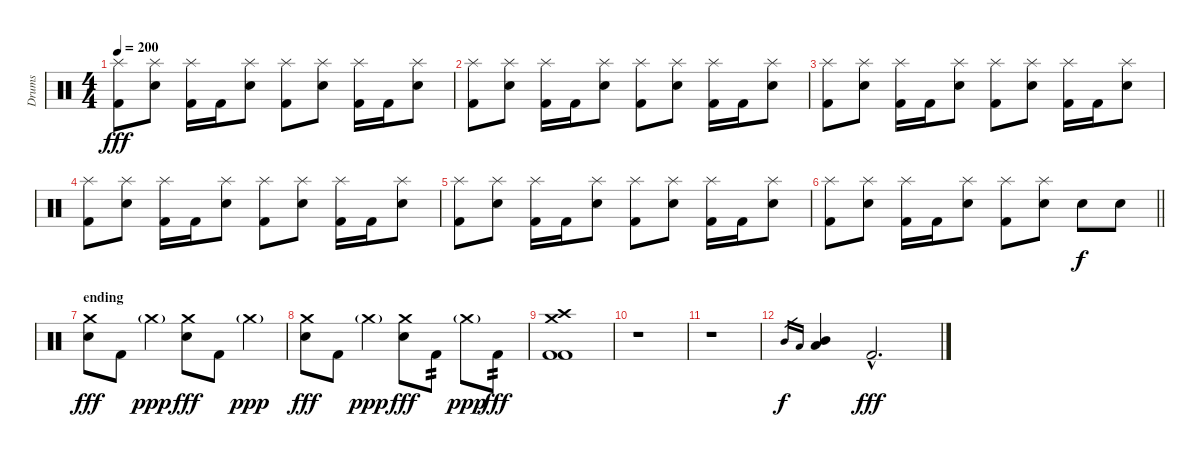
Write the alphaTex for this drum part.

\track ("Drums" "Drums") {instrument percussion}
\staff {score}
\articulation defaults
\ts (4 4)
\tempo 200
\clef neutral
\ks c
("Splash (hit)" "Kick (hit) 2").8{dy fff} ("Splash (hit)" "Electric Snare (hit)").8 ("Splash (hit)" "Kick (hit) 2").16 "Kick (hit) 2".16 ("Splash (hit)" "Electric Snare (hit)").8 ("Splash (hit)" "Kick (hit) 2").8 ("Splash (hit)" "Electric Snare (hit)").8 ("Splash (hit)" "Kick (hit) 2").16 "Kick (hit) 2".16 ("Splash (hit)" "Electric Snare (hit)").8 |
("Splash (hit)" "Kick (hit) 2").8 ("Splash (hit)" "Electric Snare (hit)").8 ("Splash (hit)" "Kick (hit) 2").16 "Kick (hit) 2".16 ("Splash (hit)" "Electric Snare (hit)").8 ("Splash (hit)" "Kick (hit) 2").8 ("Splash (hit)" "Electric Snare (hit)").8 ("Splash (hit)" "Kick (hit) 2").16 "Kick (hit) 2".16 ("Splash (hit)" "Electric Snare (hit)").8 |
("Splash (hit)" "Kick (hit) 2").8 ("Splash (hit)" "Electric Snare (hit)").8 ("Splash (hit)" "Kick (hit) 2").16 "Kick (hit) 2".16 ("Splash (hit)" "Electric Snare (hit)").8 ("Splash (hit)" "Kick (hit) 2").8 ("Splash (hit)" "Electric Snare (hit)").8 ("Splash (hit)" "Kick (hit) 2").16 "Kick (hit) 2".16 ("Splash (hit)" "Electric Snare (hit)").8 |
("Splash (hit)" "Kick (hit) 2").8 ("Splash (hit)" "Electric Snare (hit)").8 ("Splash (hit)" "Kick (hit) 2").16 "Kick (hit) 2".16 ("Splash (hit)" "Electric Snare (hit)").8 ("Splash (hit)" "Kick (hit) 2").8 ("Splash (hit)" "Electric Snare (hit)").8 ("Splash (hit)" "Kick (hit) 2").16 "Kick (hit) 2".16 ("Splash (hit)" "Electric Snare (hit)").8 |
("Splash (hit)" "Kick (hit) 2").8 ("Splash (hit)" "Electric Snare (hit)").8 ("Splash (hit)" "Kick (hit) 2").16 "Kick (hit) 2".16 ("Splash (hit)" "Electric Snare (hit)").8 ("Splash (hit)" "Kick (hit) 2").8 ("Splash (hit)" "Electric Snare (hit)").8 ("Splash (hit)" "Kick (hit) 2").16 "Kick (hit) 2".16 ("Splash (hit)" "Electric Snare (hit)").8 |
\barLineRight lightlight
("Splash (hit)" "Kick (hit) 2").8 ("Splash (hit)" "Electric Snare (hit)").8 ("Splash (hit)" "Kick (hit) 2").16 "Kick (hit) 2".16 ("Splash (hit)" "Electric Snare (hit)").8 ("Splash (hit)" "Kick (hit) 2").8 ("Splash (hit)" "Electric Snare (hit)").8 "Electric Snare (hit)".8{dy f} "Electric Snare (hit)".8 |
\section ("" "ending")
("Crash medium (hit)" "Electric Snare (hit)").8{dy fff} "Kick (hit) 2".8 "Crash medium (hit)"{g}.4{dy ppp} ("Crash medium (hit)" "Electric Snare (hit)").8{dy fff} "Kick (hit) 2".8 "Crash medium (hit)"{g}.4{dy ppp} |
("Crash medium (hit)" "Electric Snare (hit)").8{dy fff} "Kick (hit) 2".8 "Crash medium (hit)"{g}.4{dy ppp} ("Crash medium (hit)" "Electric Snare (hit)").8{dy fff} "Kick (hit) 2".8{tp 2} "Crash medium (hit)"{g}.8{dy ppp} "Kick (hit) 2".8{tp 2 dy fff} |
("Crash medium (hit)" "Crash high (hit)" "Kick (hit) 2" "Kick (hit) 2").1 |
r.1 |
r.1 |
"Mid Tom (hit)".16{gr dy f} "Low Tom (hit)".16{gr} ("Mid Tom (hit)" "Low Tom (hit)").4{volume 16} "Kick (hit) 2"{hac}.2{d dy fff}
